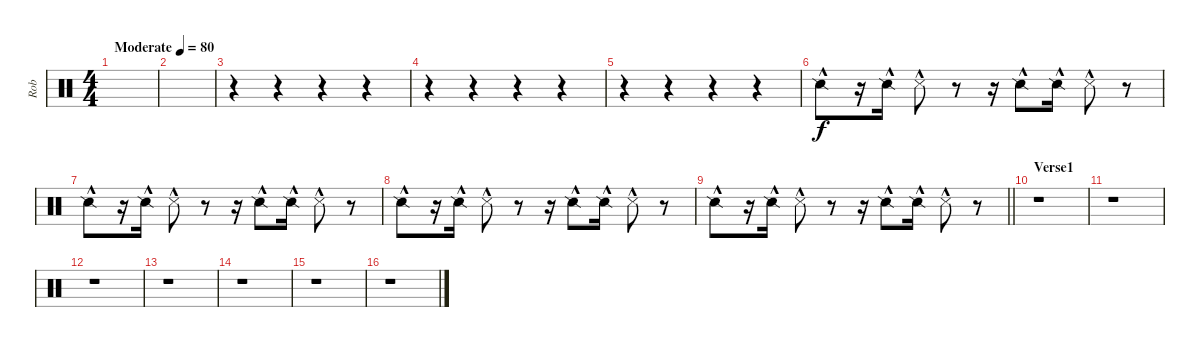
\track ("Rob" "Rob") {instrument percussion}
\staff {score}
\articulation defaults
\ts (4 4)
\tempo (80 "Moderate")
\clef neutral
\ks c
|
|
r.4 r.4 r.4 r.4 |
r.4 r.4 r.4 r.4 |
r.4 r.4 r.4 r.4 |
"Snare (side stick) 2"{hac}.8{volume 4} r.16 "Snare (side stick) 2"{hac}.16 "Metronome (hit)"{hac}.8 r.8 r.16 "Snare (side stick) 2"{hac}.8 "Snare (side stick) 2"{hac}.16 "Metronome (hit)"{hac}.8 r.8 |
"Snare (side stick) 2"{hac}.8 r.16 "Snare (side stick) 2"{hac}.16 "Metronome (hit)"{hac}.8 r.8 r.16 "Snare (side stick) 2"{hac}.8 "Snare (side stick) 2"{hac}.16 "Metronome (hit)"{hac}.8 r.8 |
"Snare (side stick) 2"{hac}.8 r.16 "Snare (side stick) 2"{hac}.16 "Metronome (hit)"{hac}.8 r.8 r.16 "Snare (side stick) 2"{hac}.8 "Snare (side stick) 2"{hac}.16 "Metronome (hit)"{hac}.8 r.8 |
\barLineRight lightlight "Snare (side stick) 2"{hac}.8
r.16 "Snare (side stick) 2"{hac}.16 "Metronome (hit)"{hac}.8 r.8 r.16 "Snare (side stick) 2"{hac}.8 "Snare (side stick) 2"{hac}.16 "Metronome (hit)"{hac}.8 r.8 |
\section ("" "Verse1")
r.1 |
r.1 |
r.1 |
r.1 |
r.1 |
r.1 |
r.1
